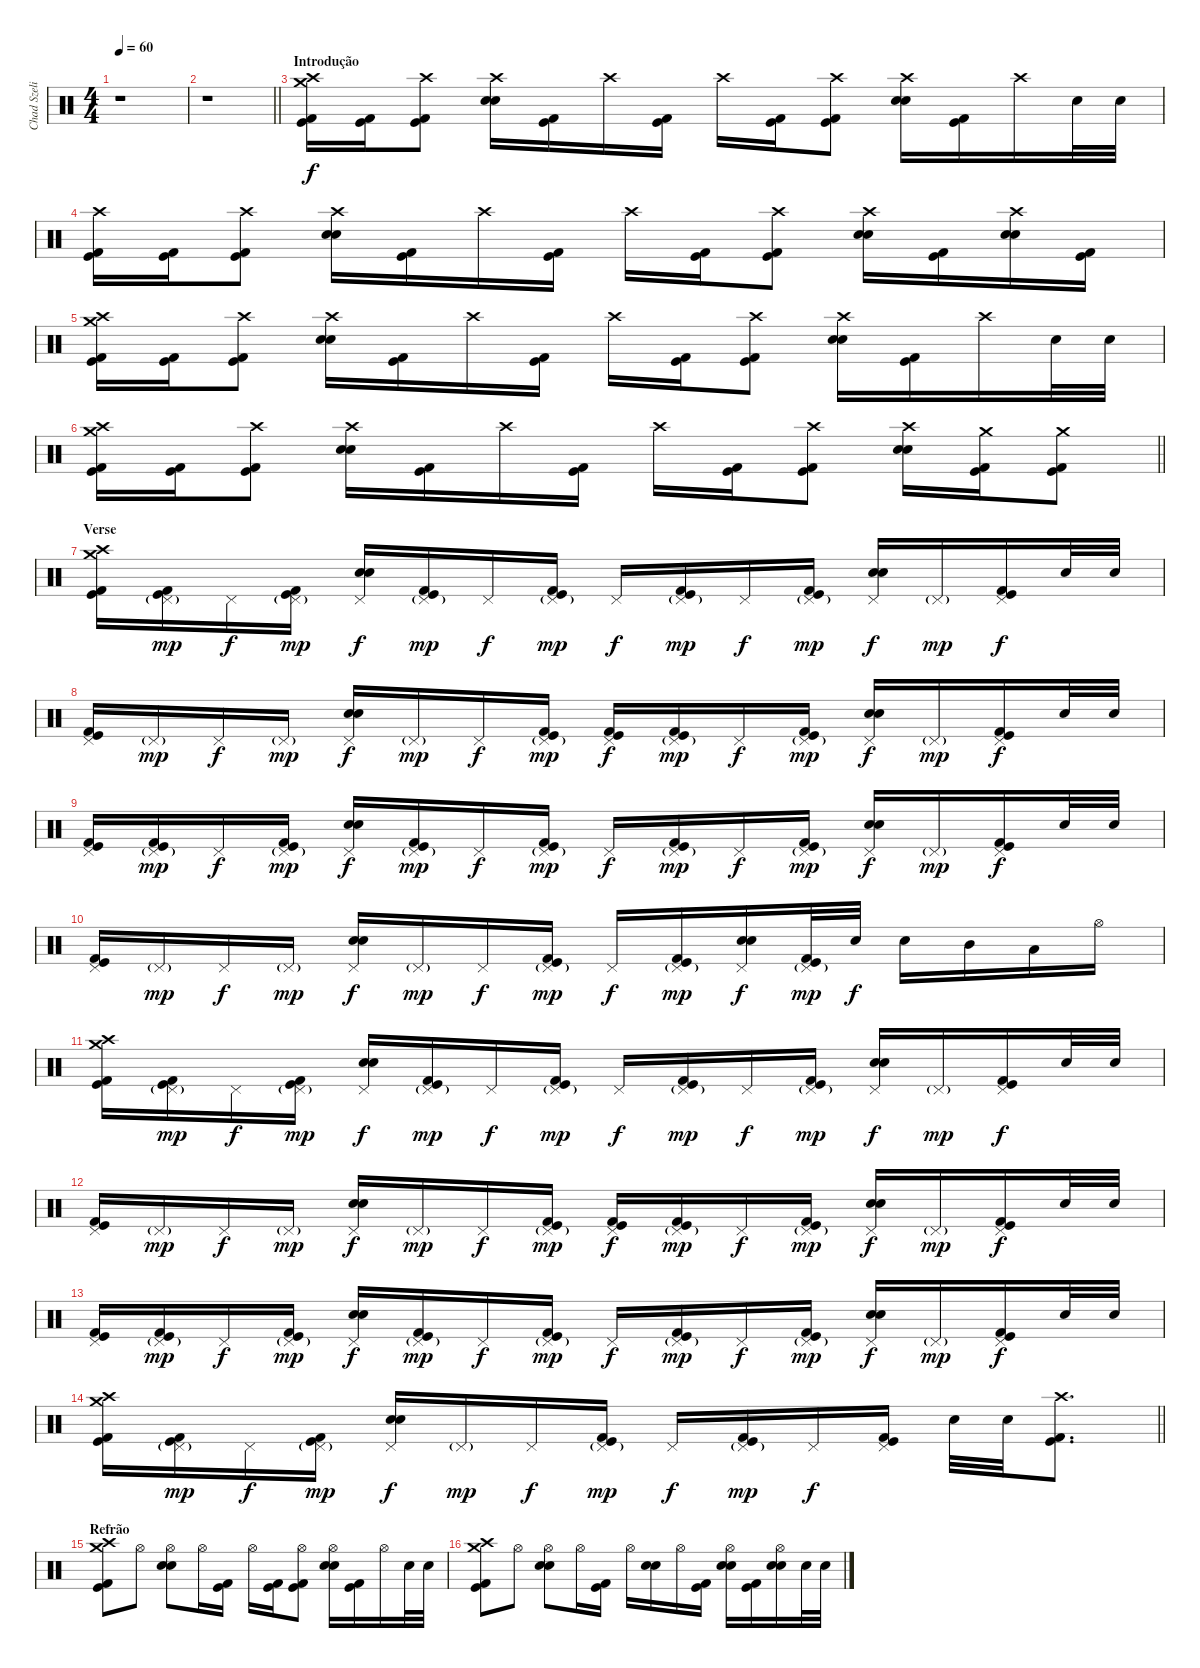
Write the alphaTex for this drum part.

\track ("Chad Szeliga" "Chad Szeli") {instrument percussion}
\staff {score}
\articulation defaults
\ts (4 4)
\section ("" "")
\tempo 60
\clef neutral
\ks c
r.1{dy f} |
\barLineRight lightlight
r.1 |
\section ("" "Introdução")
("Crash high (hit)" "Kick (hit) 2" "Kick (hit)" "Crash medium (hit)").16 ("Kick (hit) 2" "Kick (hit)").16 ("Crash high (hit)" "Kick (hit) 2" "Kick (hit)").8 ("Crash high (hit)" "Snare (hit) 2" "Snare (hit) 2").16 ("Kick (hit) 2" "Kick (hit)").16 "Crash high (hit)".16 ("Kick (hit) 2" "Kick (hit)").16 "Crash high (hit)".16 ("Kick (hit) 2" "Kick (hit)").16 ("Crash high (hit)" "Kick (hit) 2" "Kick (hit)").8 ("Crash high (hit)" "Snare (hit) 2" "Snare (hit) 2").16 ("Kick (hit) 2" "Kick (hit)").16 "Crash high (hit)".16 "Snare (hit) 2".32 "Snare (hit) 2".32 |
("Crash high (hit)" "Kick (hit) 2" "Kick (hit)").16 ("Kick (hit) 2" "Kick (hit)").16 ("Crash high (hit)" "Kick (hit) 2" "Kick (hit)").8 ("Crash high (hit)" "Snare (hit) 2" "Snare (hit) 2").16 ("Kick (hit) 2" "Kick (hit)").16 "Crash high (hit)".16 ("Kick (hit) 2" "Kick (hit)").16 "Crash high (hit)".16 ("Kick (hit) 2" "Kick (hit)").16 ("Crash high (hit)" "Kick (hit) 2" "Kick (hit)").8 ("Crash high (hit)" "Snare (hit) 2" "Snare (hit) 2").16 ("Kick (hit) 2" "Kick (hit)").16 ("Crash high (hit)" "Snare (hit) 2" "Snare (hit) 2").16 ("Kick (hit) 2" "Kick (hit)").16 |
("Crash high (hit)" "Kick (hit) 2" "Kick (hit)" "Crash medium (hit)").16 ("Kick (hit) 2" "Kick (hit)").16 ("Crash high (hit)" "Kick (hit) 2" "Kick (hit)").8 ("Crash high (hit)" "Snare (hit) 2" "Snare (hit) 2").16 ("Kick (hit) 2" "Kick (hit)").16 "Crash high (hit)".16 ("Kick (hit) 2" "Kick (hit)").16 "Crash high (hit)".16 ("Kick (hit) 2" "Kick (hit)").16 ("Crash high (hit)" "Kick (hit) 2" "Kick (hit)").8 ("Crash high (hit)" "Snare (hit) 2" "Snare (hit) 2").16 ("Kick (hit) 2" "Kick (hit)").16 "Crash high (hit)".16 "Snare (hit) 2".32 "Snare (hit) 2".32 |
\barLineRight lightlight
("Crash high (hit)" "Kick (hit) 2" "Kick (hit)" "Crash medium (hit)").16 ("Kick (hit) 2" "Kick (hit)").16 ("Crash high (hit)" "Kick (hit) 2" "Kick (hit)").8 ("Crash high (hit)" "Snare (hit) 2" "Snare (hit) 2").16 ("Kick (hit) 2" "Kick (hit)").16 "Crash high (hit)".16 ("Kick (hit) 2" "Kick (hit)").16 "Crash high (hit)".16 ("Kick (hit) 2" "Kick (hit)").16 ("Crash high (hit)" "Kick (hit) 2" "Kick (hit)").8 ("Crash high (hit)" "Snare (hit) 2" "Snare (hit) 2").16 ("Crash medium (hit)" "Kick (hit) 2" "Kick (hit)").16 ("Crash medium (hit)" "Kick (hit) 2" "Kick (hit)").8 |
\section ("" "Verse")
("Crash medium (hit)" "Kick (hit) 2" "Kick (hit)" "Crash high (hit)").16 ("Kick (hit) 2" "Kick (hit)" "Pedal Hi-Hat (hit)"{g}).16{dy mp} "Pedal Hi-Hat (hit)".16{dy f} ("Kick (hit) 2" "Kick (hit)" "Pedal Hi-Hat (hit)"{g}).16{dy mp} ("Snare (hit) 2" "Snare (hit) 2" "Pedal Hi-Hat (hit)").16{dy f} ("Kick (hit) 2" "Kick (hit)" "Pedal Hi-Hat (hit)"{g}).16{dy mp} "Pedal Hi-Hat (hit)".16{dy f} ("Kick (hit) 2" "Kick (hit)" "Pedal Hi-Hat (hit)"{g}).16{dy mp} "Pedal Hi-Hat (hit)".16{dy f} ("Kick (hit) 2" "Kick (hit)" "Pedal Hi-Hat (hit)"{g}).16{dy mp} "Pedal Hi-Hat (hit)".16{dy f} ("Kick (hit) 2" "Kick (hit)" "Pedal Hi-Hat (hit)"{g}).16{dy mp} ("Snare (hit) 2" "Snare (hit) 2" "Pedal Hi-Hat (hit)").16{dy f} "Pedal Hi-Hat (hit)"{g}.16{dy mp} ("Kick (hit) 2" "Kick (hit)" "Pedal Hi-Hat (hit)").16{dy f} "Snare (hit) 2".32 "Snare (hit) 2".32 |
("Kick (hit) 2" "Kick (hit)" "Pedal Hi-Hat (hit)").16 "Pedal Hi-Hat (hit)"{g}.16{dy mp} "Pedal Hi-Hat (hit)".16{dy f} "Pedal Hi-Hat (hit)"{g}.16{dy mp} ("Snare (hit) 2" "Snare (hit) 2" "Pedal Hi-Hat (hit)").16{dy f} "Pedal Hi-Hat (hit)"{g}.16{dy mp} "Pedal Hi-Hat (hit)".16{dy f} ("Kick (hit) 2" "Kick (hit)" "Pedal Hi-Hat (hit)"{g}).16{dy mp} ("Kick (hit) 2" "Kick (hit)" "Pedal Hi-Hat (hit)").16{dy f} ("Kick (hit) 2" "Kick (hit)" "Pedal Hi-Hat (hit)"{g}).16{dy mp} "Pedal Hi-Hat (hit)".16{dy f} ("Kick (hit) 2" "Kick (hit)" "Pedal Hi-Hat (hit)"{g}).16{dy mp} ("Snare (hit) 2" "Snare (hit) 2" "Pedal Hi-Hat (hit)").16{dy f} "Pedal Hi-Hat (hit)"{g}.16{dy mp} ("Kick (hit) 2" "Kick (hit)" "Pedal Hi-Hat (hit)").16{dy f} "Snare (hit) 2".32 "Snare (hit) 2".32 |
("Kick (hit) 2" "Kick (hit)" "Pedal Hi-Hat (hit)").16 ("Kick (hit) 2" "Kick (hit)" "Pedal Hi-Hat (hit)"{g}).16{dy mp} "Pedal Hi-Hat (hit)".16{dy f} ("Kick (hit) 2" "Kick (hit)" "Pedal Hi-Hat (hit)"{g}).16{dy mp} ("Snare (hit) 2" "Snare (hit) 2" "Pedal Hi-Hat (hit)").16{dy f} ("Kick (hit) 2" "Kick (hit)" "Pedal Hi-Hat (hit)"{g}).16{dy mp} "Pedal Hi-Hat (hit)".16{dy f} ("Kick (hit) 2" "Kick (hit)" "Pedal Hi-Hat (hit)"{g}).16{dy mp} "Pedal Hi-Hat (hit)".16{dy f} ("Kick (hit) 2" "Kick (hit)" "Pedal Hi-Hat (hit)"{g}).16{dy mp} "Pedal Hi-Hat (hit)".16{dy f} ("Kick (hit) 2" "Kick (hit)" "Pedal Hi-Hat (hit)"{g}).16{dy mp} ("Snare (hit) 2" "Snare (hit) 2" "Pedal Hi-Hat (hit)").16{dy f} "Pedal Hi-Hat (hit)"{g}.16{dy mp} ("Kick (hit) 2" "Kick (hit)" "Pedal Hi-Hat (hit)").16{dy f} "Snare (hit) 2".32 "Snare (hit) 2".32 |
("Kick (hit) 2" "Kick (hit)" "Pedal Hi-Hat (hit)").16 "Pedal Hi-Hat (hit)"{g}.16{dy mp} "Pedal Hi-Hat (hit)".16{dy f} "Pedal Hi-Hat (hit)"{g}.16{dy mp} ("Snare (hit) 2" "Snare (hit) 2" "Pedal Hi-Hat (hit)").16{dy f} "Pedal Hi-Hat (hit)"{g}.16{dy mp} "Pedal Hi-Hat (hit)".16{dy f} ("Kick (hit) 2" "Kick (hit)" "Pedal Hi-Hat (hit)"{g}).16{dy mp} "Pedal Hi-Hat (hit)".16{dy f} ("Kick (hit) 2" "Kick (hit)" "Pedal Hi-Hat (hit)"{g}).16{dy mp} ("Snare (hit) 2" "Snare (hit) 2" "Pedal Hi-Hat (hit)").16{dy f} ("Kick (hit) 2" "Kick (hit)" "Pedal Hi-Hat (hit)"{g}).32{dy mp} "Snare (hit) 2".32{dy f} "Snare (hit) 2".16 "Mid Tom (hit)".16 "Low Tom (hit)".16 "Hi-Hat (open)".16 |
("Crash medium (hit)" "Kick (hit) 2" "Kick (hit)" "Crash high (hit)").16 ("Kick (hit) 2" "Kick (hit)" "Pedal Hi-Hat (hit)"{g}).16{dy mp} "Pedal Hi-Hat (hit)".16{dy f} ("Kick (hit) 2" "Kick (hit)" "Pedal Hi-Hat (hit)"{g}).16{dy mp} ("Snare (hit) 2" "Snare (hit) 2" "Pedal Hi-Hat (hit)").16{dy f} ("Kick (hit) 2" "Kick (hit)" "Pedal Hi-Hat (hit)"{g}).16{dy mp} "Pedal Hi-Hat (hit)".16{dy f} ("Kick (hit) 2" "Kick (hit)" "Pedal Hi-Hat (hit)"{g}).16{dy mp} "Pedal Hi-Hat (hit)".16{dy f} ("Kick (hit) 2" "Kick (hit)" "Pedal Hi-Hat (hit)"{g}).16{dy mp} "Pedal Hi-Hat (hit)".16{dy f} ("Kick (hit) 2" "Kick (hit)" "Pedal Hi-Hat (hit)"{g}).16{dy mp} ("Snare (hit) 2" "Snare (hit) 2" "Pedal Hi-Hat (hit)").16{dy f} "Pedal Hi-Hat (hit)"{g}.16{dy mp} ("Kick (hit) 2" "Kick (hit)" "Pedal Hi-Hat (hit)").16{dy f} "Snare (hit) 2".32 "Snare (hit) 2".32 |
("Kick (hit) 2" "Kick (hit)" "Pedal Hi-Hat (hit)").16 "Pedal Hi-Hat (hit)"{g}.16{dy mp} "Pedal Hi-Hat (hit)".16{dy f} "Pedal Hi-Hat (hit)"{g}.16{dy mp} ("Snare (hit) 2" "Snare (hit) 2" "Pedal Hi-Hat (hit)").16{dy f} "Pedal Hi-Hat (hit)"{g}.16{dy mp} "Pedal Hi-Hat (hit)".16{dy f} ("Kick (hit) 2" "Kick (hit)" "Pedal Hi-Hat (hit)"{g}).16{dy mp} ("Kick (hit) 2" "Kick (hit)" "Pedal Hi-Hat (hit)").16{dy f} ("Kick (hit) 2" "Kick (hit)" "Pedal Hi-Hat (hit)"{g}).16{dy mp} "Pedal Hi-Hat (hit)".16{dy f} ("Kick (hit) 2" "Kick (hit)" "Pedal Hi-Hat (hit)"{g}).16{dy mp} ("Snare (hit) 2" "Snare (hit) 2" "Pedal Hi-Hat (hit)").16{dy f} "Pedal Hi-Hat (hit)"{g}.16{dy mp} ("Kick (hit) 2" "Kick (hit)" "Pedal Hi-Hat (hit)").16{dy f} "Snare (hit) 2".32 "Snare (hit) 2".32 |
("Kick (hit) 2" "Kick (hit)" "Pedal Hi-Hat (hit)").16 ("Kick (hit) 2" "Kick (hit)" "Pedal Hi-Hat (hit)"{g}).16{dy mp} "Pedal Hi-Hat (hit)".16{dy f} ("Kick (hit) 2" "Kick (hit)" "Pedal Hi-Hat (hit)"{g}).16{dy mp} ("Snare (hit) 2" "Snare (hit) 2" "Pedal Hi-Hat (hit)").16{dy f} ("Kick (hit) 2" "Kick (hit)" "Pedal Hi-Hat (hit)"{g}).16{dy mp} "Pedal Hi-Hat (hit)".16{dy f} ("Kick (hit) 2" "Kick (hit)" "Pedal Hi-Hat (hit)"{g}).16{dy mp} "Pedal Hi-Hat (hit)".16{dy f} ("Kick (hit) 2" "Kick (hit)" "Pedal Hi-Hat (hit)"{g}).16{dy mp} "Pedal Hi-Hat (hit)".16{dy f} ("Kick (hit) 2" "Kick (hit)" "Pedal Hi-Hat (hit)"{g}).16{dy mp} ("Snare (hit) 2" "Snare (hit) 2" "Pedal Hi-Hat (hit)").16{dy f} "Pedal Hi-Hat (hit)"{g}.16{dy mp} ("Kick (hit) 2" "Kick (hit)" "Pedal Hi-Hat (hit)").16{dy f} "Snare (hit) 2".32 "Snare (hit) 2".32 |
\barLineRight lightlight
("Crash medium (hit)" "Kick (hit) 2" "Kick (hit)" "Crash high (hit)").16 ("Kick (hit) 2" "Kick (hit)" "Pedal Hi-Hat (hit)"{g}).16{dy mp} "Pedal Hi-Hat (hit)".16{dy f} ("Kick (hit) 2" "Kick (hit)" "Pedal Hi-Hat (hit)"{g}).16{dy mp} ("Snare (hit) 2" "Snare (hit) 2" "Pedal Hi-Hat (hit)").16{dy f} "Pedal Hi-Hat (hit)"{g}.16{dy mp} "Pedal Hi-Hat (hit)".16{dy f} ("Kick (hit) 2" "Kick (hit)" "Pedal Hi-Hat (hit)"{g}).16{dy mp} "Pedal Hi-Hat (hit)".16{dy f} ("Kick (hit) 2" "Kick (hit)" "Pedal Hi-Hat (hit)"{g}).16{dy mp} "Pedal Hi-Hat (hit)".16{dy f} ("Kick (hit) 2" "Kick (hit)" "Pedal Hi-Hat (hit)").16 "Snare (hit) 2".32 "Snare (hit) 2".32 ("Crash high (hit)" "Kick (hit) 2" "Kick (hit)").8{d} |
\section ("" "Refrão")
("Crash high (hit)" "Kick (hit) 2" "Kick (hit)" "Crash medium (hit)").8 "Hi-Hat (open)".8 ("Snare (hit) 2" "Snare (hit) 2" "Hi-Hat (open)").8 "Hi-Hat (open)".16 ("Kick (hit) 2" "Kick (hit)").16 "Hi-Hat (open)".16 ("Kick (hit) 2" "Kick (hit)").16 ("Kick (hit) 2" "Kick (hit)" "Hi-Hat (open)").8 ("Snare (hit) 2" "Snare (hit) 2" "Hi-Hat (open)").16 ("Kick (hit) 2" "Kick (hit)").16 "Hi-Hat (open)".16 "Snare (hit) 2".32 "Snare (hit) 2".32 |
("Crash high (hit)" "Kick (hit) 2" "Kick (hit)" "Crash medium (hit)").8 "Hi-Hat (open)".8 ("Snare (hit) 2" "Snare (hit) 2" "Hi-Hat (open)").8 "Hi-Hat (open)".16 ("Kick (hit) 2" "Kick (hit)").16 "Hi-Hat (open)".16 ("Snare (hit) 2" "Snare (hit) 2").16 "Hi-Hat (open)".16 ("Kick (hit) 2" "Kick (hit)").16 ("Snare (hit) 2" "Snare (hit) 2" "Hi-Hat (open)").16 ("Kick (hit) 2" "Kick (hit)").16 ("Snare (hit) 2" "Snare (hit) 2" "Hi-Hat (open)").16 "Snare (hit) 2".32 "Snare (hit) 2".32
